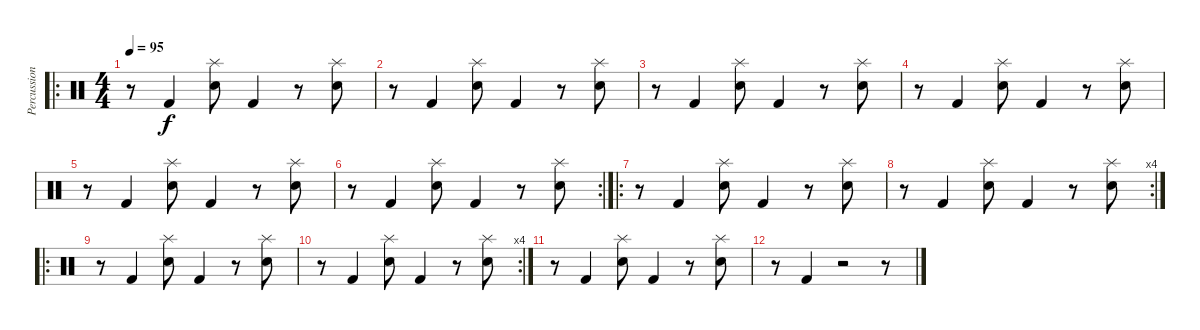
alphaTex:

\track ("Percussions" "Percussion") {instrument percussion}
\staff {score}
\articulation defaults
\ro
\ts (4 4)
\tempo 95
\clef neutral
\ks c
r.8{dy f} "Kick (hit) 2".4 ("Snare (hit) 2" "Splash (hit)").8 "Kick (hit) 2".4 r.8 ("Snare (hit) 2" "Splash (hit)").8 |
r.8 "Kick (hit) 2".4 ("Snare (hit) 2" "Splash (hit)").8 "Kick (hit) 2".4 r.8 ("Snare (hit) 2" "Splash (hit)").8 |
r.8 "Kick (hit) 2".4 ("Snare (hit) 2" "Splash (hit)").8 "Kick (hit) 2".4 r.8 ("Snare (hit) 2" "Splash (hit)").8 |
r.8 "Kick (hit) 2".4 ("Snare (hit) 2" "Splash (hit)").8 "Kick (hit) 2".4 r.8 ("Snare (hit) 2" "Splash (hit)").8 |
r.8 "Kick (hit) 2".4 ("Snare (hit) 2" "Splash (hit)").8 "Kick (hit) 2".4 r.8 ("Snare (hit) 2" "Splash (hit)").8 |
\rc 2
r.8 "Kick (hit) 2".4 ("Snare (hit) 2" "Splash (hit)").8 "Kick (hit) 2".4 r.8 ("Snare (hit) 2" "Splash (hit)").8 |
\ro
r.8 "Kick (hit) 2".4 ("Snare (hit) 2" "Splash (hit)").8 "Kick (hit) 2".4 r.8 ("Snare (hit) 2" "Splash (hit)").8 |
\rc 4
r.8 "Kick (hit) 2".4 ("Snare (hit) 2" "Splash (hit)").8 "Kick (hit) 2".4 r.8 ("Snare (hit) 2" "Splash (hit)").8 |
\ro
r.8 "Kick (hit) 2".4 ("Snare (hit) 2" "Splash (hit)").8 "Kick (hit) 2".4 r.8 ("Snare (hit) 2" "Splash (hit)").8 |
\rc 4
r.8 "Kick (hit) 2".4 ("Snare (hit) 2" "Splash (hit)").8 "Kick (hit) 2".4 r.8 ("Snare (hit) 2" "Splash (hit)").8 |
r.8 "Kick (hit) 2".4 ("Snare (hit) 2" "Splash (hit)").8 "Kick (hit) 2".4 r.8 ("Snare (hit) 2" "Splash (hit)").8 |
r.8 "Kick (hit) 2".4 r.2 r.8
